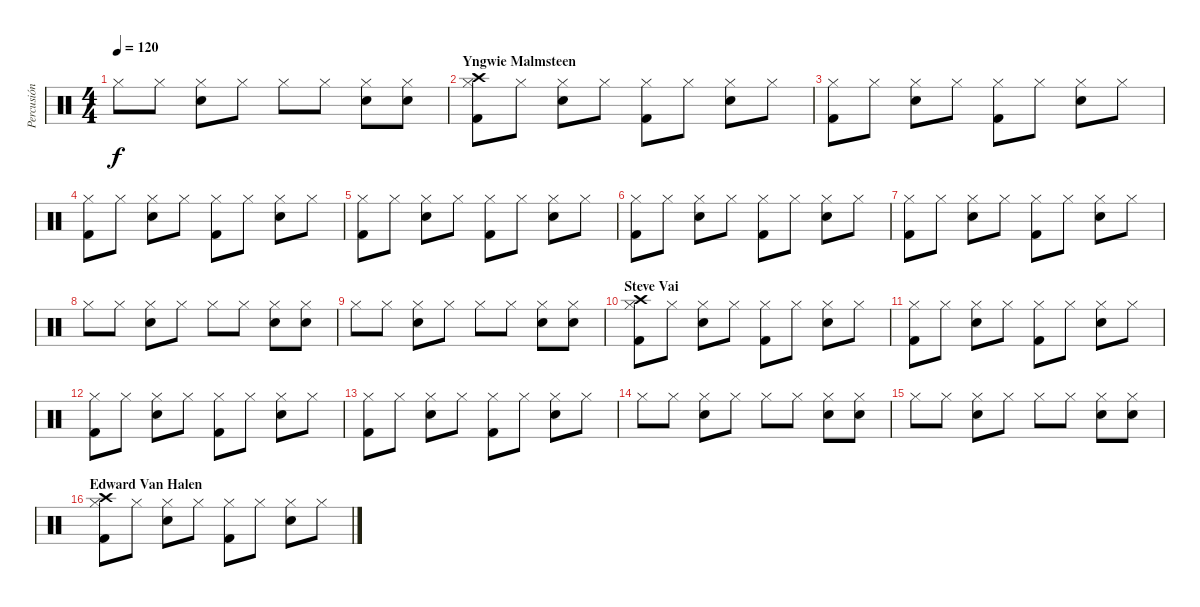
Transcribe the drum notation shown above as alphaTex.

\track ("Percusión" "Percusión") {instrument percussion}
\staff {score}
\articulation defaults
\ts (4 4)
\tempo 120
\clef neutral
\ks c "Hi-Hat (closed)".8{dy f} "Hi-Hat (closed)".8
("Electric Snare (hit)" "Hi-Hat (closed)").8 "Hi-Hat (closed)".8 "Hi-Hat (closed)".8 "Hi-Hat (closed)".8 ("Electric Snare (hit)" "Hi-Hat (closed)").8 ("Electric Snare (hit)" "Hi-Hat (closed)").8 |
\section ("" "Yngwie Malmsteen")
("Kick (hit) 2" "Hi-Hat (closed)" "Crash high (hit)").8 "Hi-Hat (closed)".8 ("Electric Snare (hit)" "Hi-Hat (closed)").8 "Hi-Hat (closed)".8 ("Kick (hit) 2" "Hi-Hat (closed)").8 "Hi-Hat (closed)".8 ("Electric Snare (hit)" "Hi-Hat (closed)").8 "Hi-Hat (closed)".8 |
("Kick (hit) 2" "Hi-Hat (closed)").8 "Hi-Hat (closed)".8 ("Electric Snare (hit)" "Hi-Hat (closed)").8 "Hi-Hat (closed)".8 ("Kick (hit) 2" "Hi-Hat (closed)").8 "Hi-Hat (closed)".8 ("Electric Snare (hit)" "Hi-Hat (closed)").8 "Hi-Hat (closed)".8 |
("Kick (hit) 2" "Hi-Hat (closed)").8 "Hi-Hat (closed)".8 ("Electric Snare (hit)" "Hi-Hat (closed)").8 "Hi-Hat (closed)".8 ("Kick (hit) 2" "Hi-Hat (closed)").8 "Hi-Hat (closed)".8 ("Electric Snare (hit)" "Hi-Hat (closed)").8 "Hi-Hat (closed)".8 |
("Kick (hit) 2" "Hi-Hat (closed)").8 "Hi-Hat (closed)".8 ("Electric Snare (hit)" "Hi-Hat (closed)").8 "Hi-Hat (closed)".8 ("Kick (hit) 2" "Hi-Hat (closed)").8 "Hi-Hat (closed)".8 ("Electric Snare (hit)" "Hi-Hat (closed)").8 "Hi-Hat (closed)".8 |
("Kick (hit) 2" "Hi-Hat (closed)").8 "Hi-Hat (closed)".8 ("Electric Snare (hit)" "Hi-Hat (closed)").8 "Hi-Hat (closed)".8 ("Kick (hit) 2" "Hi-Hat (closed)").8 "Hi-Hat (closed)".8 ("Electric Snare (hit)" "Hi-Hat (closed)").8 "Hi-Hat (closed)".8 |
("Kick (hit) 2" "Hi-Hat (closed)").8 "Hi-Hat (closed)".8 ("Electric Snare (hit)" "Hi-Hat (closed)").8 "Hi-Hat (closed)".8 ("Kick (hit) 2" "Hi-Hat (closed)").8 "Hi-Hat (closed)".8 ("Electric Snare (hit)" "Hi-Hat (closed)").8 "Hi-Hat (closed)".8 |
"Hi-Hat (closed)".8 "Hi-Hat (closed)".8 ("Electric Snare (hit)" "Hi-Hat (closed)").8 "Hi-Hat (closed)".8 "Hi-Hat (closed)".8 "Hi-Hat (closed)".8 ("Electric Snare (hit)" "Hi-Hat (closed)").8 ("Electric Snare (hit)" "Hi-Hat (closed)").8 |
"Hi-Hat (closed)".8 "Hi-Hat (closed)".8 ("Electric Snare (hit)" "Hi-Hat (closed)").8 "Hi-Hat (closed)".8 "Hi-Hat (closed)".8 "Hi-Hat (closed)".8 ("Electric Snare (hit)" "Hi-Hat (closed)").8 ("Electric Snare (hit)" "Hi-Hat (closed)").8 |
\section ("" "Steve Vai")
("Kick (hit) 2" "Hi-Hat (closed)" "Crash high (hit)").8 "Hi-Hat (closed)".8 ("Electric Snare (hit)" "Hi-Hat (closed)").8 "Hi-Hat (closed)".8 ("Kick (hit) 2" "Hi-Hat (closed)").8 "Hi-Hat (closed)".8 ("Electric Snare (hit)" "Hi-Hat (closed)").8 "Hi-Hat (closed)".8 |
("Kick (hit) 2" "Hi-Hat (closed)").8 "Hi-Hat (closed)".8 ("Electric Snare (hit)" "Hi-Hat (closed)").8 "Hi-Hat (closed)".8 ("Kick (hit) 2" "Hi-Hat (closed)").8 "Hi-Hat (closed)".8 ("Electric Snare (hit)" "Hi-Hat (closed)").8 "Hi-Hat (closed)".8 |
("Kick (hit) 2" "Hi-Hat (closed)").8 "Hi-Hat (closed)".8 ("Electric Snare (hit)" "Hi-Hat (closed)").8 "Hi-Hat (closed)".8 ("Kick (hit) 2" "Hi-Hat (closed)").8 "Hi-Hat (closed)".8 ("Electric Snare (hit)" "Hi-Hat (closed)").8 "Hi-Hat (closed)".8 |
("Kick (hit) 2" "Hi-Hat (closed)").8 "Hi-Hat (closed)".8 ("Electric Snare (hit)" "Hi-Hat (closed)").8 "Hi-Hat (closed)".8 ("Kick (hit) 2" "Hi-Hat (closed)").8 "Hi-Hat (closed)".8 ("Electric Snare (hit)" "Hi-Hat (closed)").8 "Hi-Hat (closed)".8 |
"Hi-Hat (closed)".8 "Hi-Hat (closed)".8 ("Electric Snare (hit)" "Hi-Hat (closed)").8 "Hi-Hat (closed)".8 "Hi-Hat (closed)".8 "Hi-Hat (closed)".8 ("Electric Snare (hit)" "Hi-Hat (closed)").8 ("Electric Snare (hit)" "Hi-Hat (closed)").8 |
"Hi-Hat (closed)".8 "Hi-Hat (closed)".8 ("Electric Snare (hit)" "Hi-Hat (closed)").8 "Hi-Hat (closed)".8 "Hi-Hat (closed)".8 "Hi-Hat (closed)".8 ("Electric Snare (hit)" "Hi-Hat (closed)").8 ("Electric Snare (hit)" "Hi-Hat (closed)").8 |
\section ("" "Edward Van Halen")
("Kick (hit) 2" "Hi-Hat (closed)" "Crash high (hit)").8 "Hi-Hat (closed)".8 ("Electric Snare (hit)" "Hi-Hat (closed)").8 "Hi-Hat (closed)".8 ("Kick (hit) 2" "Hi-Hat (closed)").8 "Hi-Hat (closed)".8 ("Electric Snare (hit)" "Hi-Hat (closed)").8 "Hi-Hat (closed)".8
